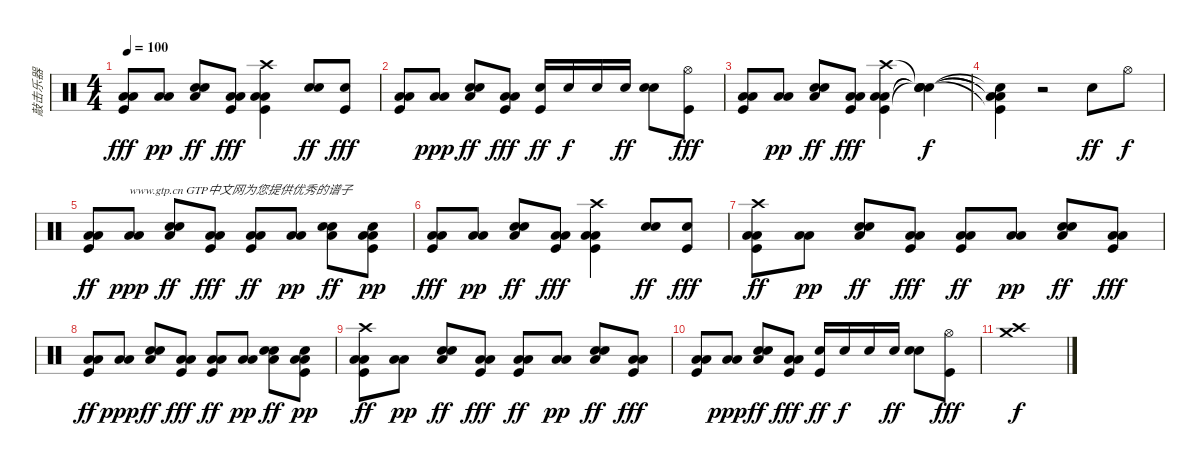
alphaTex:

\track ("敲击乐器" "敲击乐器") {instrument percussion}
\staff {score}
\articulation defaults
\ts (4 4)
\tempo 100
\clef neutral
\ks c
("Low Tom (hit)" "Low Floor Tom (hit)" "Kick (hit)").8{dy fff} ("Low Tom (hit)" "Low Floor Tom (hit)").8{dy pp} ("Snare (hit) 2" "Low Floor Tom (hit)" "Hand Clap (hit)").8{dy ff} ("Low Tom (hit)" "Low Floor Tom (hit)" "Kick (hit)").8{dy fff} ("Low Tom (hit)" "Low Floor Tom (hit)" "Kick (hit)" "Crash high (hit)").4 ("Snare (hit) 2" "Hand Clap (hit)").8{dy ff} ("Snare (hit) 2" "Kick (hit)").8{dy fff} |
("Low Tom (hit)" "Low Floor Tom (hit)" "Kick (hit)").8 ("Low Floor Tom (hit)" "Low Tom (hit)").8{dy ppp} ("Low Floor Tom (hit)" "Hand Clap (hit)" "Snare (hit) 2").8{dy ff} ("Low Tom (hit)" "Low Floor Tom (hit)" "Kick (hit)").8{dy fff} ("Kick (hit)" "Snare (hit) 2").16{dy ff} "Snare (hit) 2".16{dy f} "Snare (hit) 2".16 "Snare (hit) 2".16{dy ff} ("Hand Clap (hit)" "Snare (hit) 2").8 ("Kick (hit)" "Hi-Hat (open)").8{dy fff} |
("Low Tom (hit)" "Low Floor Tom (hit)" "Kick (hit)").8 ("Low Tom (hit)" "Low Floor Tom (hit)").8{dy pp} ("Snare (hit) 2" "Low Floor Tom (hit)" "Hand Clap (hit)").8{dy ff} ("Low Tom (hit)" "Low Floor Tom (hit)" "Kick (hit)").8{dy fff} ("Low Tom (hit)" "Low Floor Tom (hit)" "Kick (hit)" "Crash high (hit)").4 ("Snare (hit)"{t} "Snare (hit)"{t} "Snare (hit)"{t} "Snare (hit)"{t}).4{dy f} |
("Low Tom (hit)"{t} "Low Floor Tom (hit)"{t} "Kick (hit)"{t} "Snare (hit)"{t}).4 r.2 "Snare (hit) 2".8{dy ff} "Hi-Hat (open)".8{dy f} |
("Low Tom (hit)" "Low Floor Tom (hit)" "Kick (hit)").8{dy ff} ("Low Floor Tom (hit)" "Low Tom (hit)").8{txt "www.gtp.cn GTP中文网为您提供优秀的谱子" dy ppp} ("Snare (hit) 2" "Low Floor Tom (hit)" "Hand Clap (hit)").8{dy ff} ("Low Tom (hit)" "Low Floor Tom (hit)" "Kick (hit)").8{dy fff} ("Low Tom (hit)" "Low Floor Tom (hit)" "Kick (hit)").8{dy ff} ("Low Tom (hit)" "Low Floor Tom (hit)").8{dy pp} ("Low Floor Tom (hit)" "Hand Clap (hit)" "Snare (hit) 2").8{dy ff} ("Snare (hit) 2" "Kick (hit)" "Low Tom (hit)" "Low Floor Tom (hit)").8{dy pp} |
("Low Tom (hit)" "Low Floor Tom (hit)" "Kick (hit)").8{dy fff} ("Low Tom (hit)" "Low Floor Tom (hit)").8{dy pp} ("Snare (hit) 2" "Low Floor Tom (hit)" "Hand Clap (hit)").8{dy ff} ("Low Tom (hit)" "Low Floor Tom (hit)" "Kick (hit)").8{dy fff} ("Low Tom (hit)" "Low Floor Tom (hit)" "Kick (hit)" "Crash high (hit)").4 ("Snare (hit) 2" "Hand Clap (hit)").8{dy ff} ("Snare (hit) 2" "Kick (hit)").8{dy fff} |
("Crash high (hit)" "Low Tom (hit)" "Low Floor Tom (hit)" "Kick (hit)").8{dy ff} ("Low Tom (hit)" "Low Floor Tom (hit)").8{dy pp} ("Snare (hit) 2" "Low Floor Tom (hit)" "Hand Clap (hit)").8{dy ff} ("Low Tom (hit)" "Low Floor Tom (hit)" "Kick (hit)").8{dy fff} ("Low Tom (hit)" "Low Floor Tom (hit)" "Kick (hit)").8{dy ff} ("Low Floor Tom (hit)" "Low Tom (hit)").8{dy pp} ("Snare (hit) 2" "Low Floor Tom (hit)" "Hand Clap (hit)").8{dy ff} ("Low Tom (hit)" "Low Floor Tom (hit)" "Kick (hit)").8{dy fff} |
("Low Tom (hit)" "Low Floor Tom (hit)" "Kick (hit)").8{dy ff} ("Low Floor Tom (hit)" "Low Tom (hit)").8{dy ppp} ("Snare (hit) 2" "Low Floor Tom (hit)" "Hand Clap (hit)").8{dy ff} ("Low Tom (hit)" "Low Floor Tom (hit)" "Kick (hit)").8{dy fff} ("Low Tom (hit)" "Low Floor Tom (hit)" "Kick (hit)").8{dy ff} ("Low Tom (hit)" "Low Floor Tom (hit)").8{dy pp} ("Low Floor Tom (hit)" "Hand Clap (hit)" "Snare (hit) 2").8{dy ff} ("Snare (hit) 2" "Kick (hit)" "Low Tom (hit)" "Low Floor Tom (hit)").8{dy pp} |
("Crash high (hit)" "Low Tom (hit)" "Low Floor Tom (hit)" "Kick (hit)").8{dy ff} ("Low Tom (hit)" "Low Floor Tom (hit)").8{dy pp} ("Snare (hit) 2" "Low Floor Tom (hit)" "Hand Clap (hit)").8{dy ff} ("Low Tom (hit)" "Low Floor Tom (hit)" "Kick (hit)").8{dy fff} ("Low Tom (hit)" "Low Floor Tom (hit)" "Kick (hit)").8{dy ff} ("Low Floor Tom (hit)" "Low Tom (hit)").8{dy pp} ("Snare (hit) 2" "Low Floor Tom (hit)" "Hand Clap (hit)").8{dy ff} ("Low Tom (hit)" "Low Floor Tom (hit)" "Kick (hit)").8{dy fff} |
("Low Tom (hit)" "Low Floor Tom (hit)" "Kick (hit)").8 ("Low Floor Tom (hit)" "Low Tom (hit)").8{dy ppp} ("Low Floor Tom (hit)" "Hand Clap (hit)" "Snare (hit) 2").8{dy ff} ("Low Tom (hit)" "Low Floor Tom (hit)" "Kick (hit)").8{dy fff} ("Kick (hit)" "Snare (hit) 2").16{dy ff} "Snare (hit) 2".16{dy f} "Snare (hit) 2".16 "Snare (hit) 2".16{dy ff} ("Hand Clap (hit)" "Snare (hit) 2").8 ("Kick (hit)" "Hi-Hat (open)").8{dy fff} |
("Crash high (hit)" "Crash medium (hit)").1{dy f}
